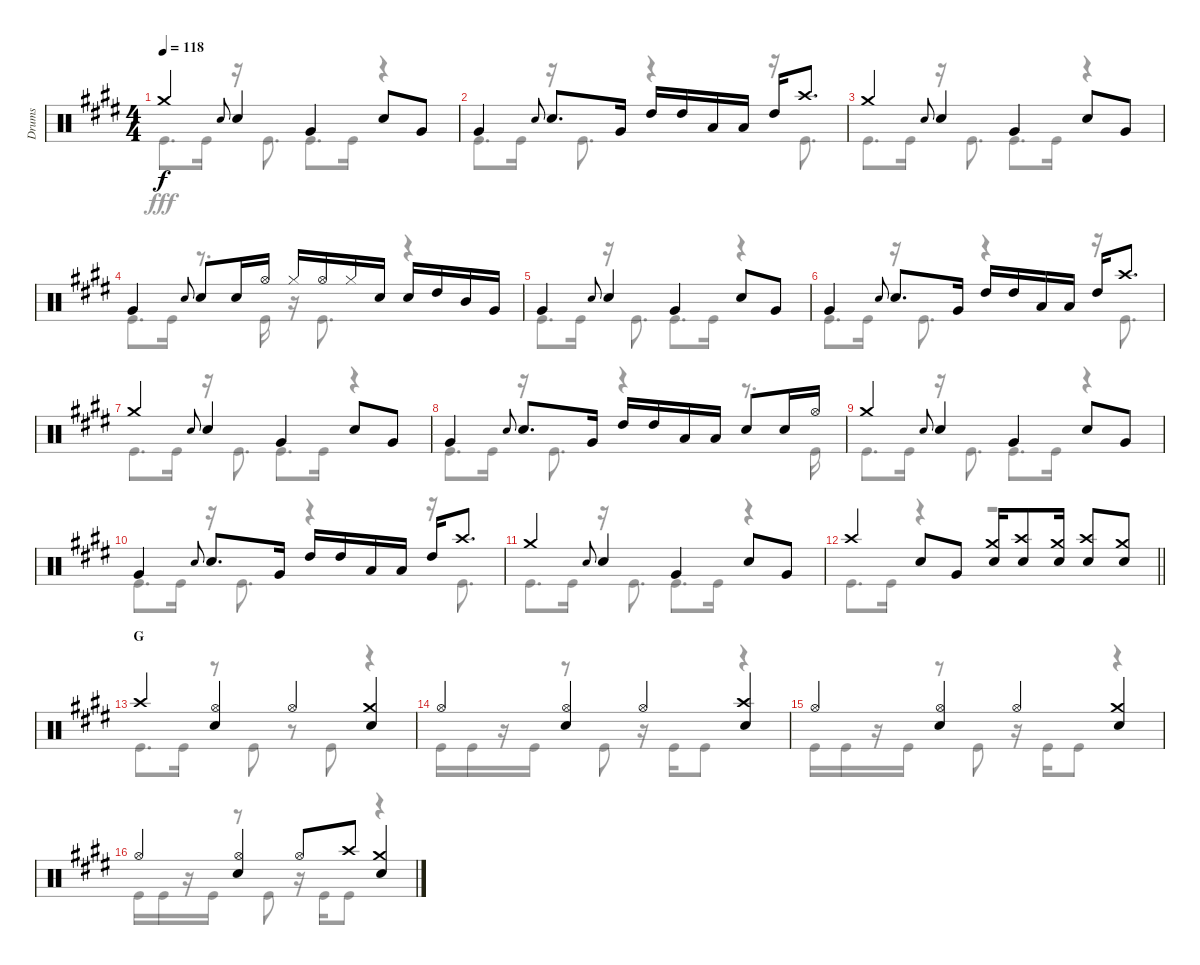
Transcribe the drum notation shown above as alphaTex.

\track ("Drums" "Drums") {instrument percussion}
\staff {score}
\articulation defaults
\voice
\ts (4 4)
\tempo 118
\clef neutral
\ks e "Crash medium (hit)".4{dy f} "Snare (hit) 2".8{gr onbeat} "Snare (hit) 2".4 "Very Low Tom (hit)".4 "Snare (hit) 2".8 "Very Low Tom (hit)".8
|
"Very Low Tom (hit)".4 "Snare (hit) 2".8{gr onbeat} "Snare (hit) 2".8{d} "Very Low Tom (hit)".16 "High Tom (hit)".16 "High Tom (hit)".16 "Low Tom (hit)".16 "Low Tom (hit)".16 "High Tom (hit)".16 "Crash high (hit)".8{d} |
"Crash medium (hit)".4 "Snare (hit) 2".8{gr onbeat} "Snare (hit) 2".4 "Very Low Tom (hit)".4 "Snare (hit) 2".8 "Very Low Tom (hit)".8 |
"Very Low Tom (hit)".4 "Snare (hit) 2".8{gr onbeat} "Snare (hit) 2".8 "Snare (hit) 2".16 "Hi-Hat (open)".16 "Hi-Hat (closed)".16 "Hi-Hat (open)".16 "Hi-Hat (closed)".16 "Snare (hit) 2".16 "Snare (hit) 2".16 "High Tom (hit)".16 "Mid Tom (hit)".16 "Very Low Tom (hit)".16 |
"Very Low Tom (hit)".4 "Snare (hit) 2".8{gr onbeat} "Snare (hit) 2".4 "Very Low Tom (hit)".4 "Snare (hit) 2".8 "Very Low Tom (hit)".8 |
"Very Low Tom (hit)".4 "Snare (hit) 2".8{gr onbeat} "Snare (hit) 2".8{d} "Very Low Tom (hit)".16 "High Tom (hit)".16 "High Tom (hit)".16 "Low Tom (hit)".16 "Low Tom (hit)".16 "High Tom (hit)".16 "Crash high (hit)".8{d} |
"Crash medium (hit)".4 "Snare (hit) 2".8{gr onbeat} "Snare (hit) 2".4 "Very Low Tom (hit)".4 "Snare (hit) 2".8 "Very Low Tom (hit)".8 |
"Very Low Tom (hit)".4 "Snare (hit) 2".8{gr onbeat} "Snare (hit) 2".8{d} "Very Low Tom (hit)".16 "High Tom (hit)".16 "High Tom (hit)".16 "Low Tom (hit)".16 "Low Tom (hit)".16 "Snare (hit) 2".8 "Snare (hit) 2".16 "Hi-Hat (open)".16 |
"Crash medium (hit)".4 "Snare (hit) 2".8{gr onbeat} "Snare (hit) 2".4 "Very Low Tom (hit)".4 "Snare (hit) 2".8 "Very Low Tom (hit)".8 |
"Very Low Tom (hit)".4 "Snare (hit) 2".8{gr onbeat} "Snare (hit) 2".8{d} "Very Low Tom (hit)".16 "High Tom (hit)".16 "High Tom (hit)".16 "Low Tom (hit)".16 "Low Tom (hit)".16 "High Tom (hit)".16 "Crash high (hit)".8{d} |
"Crash medium (hit)".4 "Snare (hit) 2".8{gr onbeat} "Snare (hit) 2".4 "Very Low Tom (hit)".4 "Snare (hit) 2".8 "Very Low Tom (hit)".8 |
\barLineRight lightlight "Crash high (hit)".4 "Snare (hit) 2".8 "Very Low Tom (hit)".8
("Crash medium (hit)" "Snare (hit) 2").16 ("Crash high (hit)" "Snare (hit) 2").8 ("Crash medium (hit)" "Snare (hit) 2").16 ("Crash high (hit)" "Snare (hit) 2").8 ("Crash medium (hit)" "Snare (hit) 2").8 |
\section ("" "G")
"Crash high (hit)".4 ("Hi-Hat (open)" "Snare (hit) 2").4 "Hi-Hat (open)".4 ("Crash medium (hit)" "Snare (hit) 2").4 |
"Hi-Hat (open)".4 ("Hi-Hat (open)" "Snare (hit) 2").4 "Hi-Hat (open)".4 ("Crash high (hit)" "Snare (hit) 2").4 |
"Hi-Hat (open)".4 ("Hi-Hat (open)" "Snare (hit) 2").4 "Hi-Hat (open)".4 ("Crash medium (hit)" "Snare (hit) 2").4 |
"Hi-Hat (open)".4 ("Hi-Hat (open)" "Snare (hit) 2").4 "Hi-Hat (open)".8 "Crash high (hit)".8 ("Crash medium (hit)" "Snare (hit) 2").4
\voice
\clef neutral
\ottava regular
\simile none
\ks e "Kick (hit)".8{d dy fff} "Kick (hit)".16
r.16 "Kick (hit)".8{d} "Kick (hit)".8{d} "Kick (hit)".16 r.4 |
"Kick (hit)".8{d} "Kick (hit)".16 r.16 "Kick (hit)".8{d} r.4 r.16 "Kick (hit)".8{d} |
"Kick (hit)".8{d} "Kick (hit)".16 r.16 "Kick (hit)".8{d} "Kick (hit)".8{d} "Kick (hit)".16 r.4 |
"Kick (hit)".8{d} "Kick (hit)".16 r.8{d} "Kick (hit)".16 r.16 "Kick (hit)".8{d} r.4 |
"Kick (hit)".8{d} "Kick (hit)".16 r.16 "Kick (hit)".8{d} "Kick (hit)".8{d} "Kick (hit)".16 r.4 |
"Kick (hit)".8{d} "Kick (hit)".16 r.16 "Kick (hit)".8{d} r.4 r.16 "Kick (hit)".8{d} |
"Kick (hit)".8{d} "Kick (hit)".16 r.16 "Kick (hit)".8{d} "Kick (hit)".8{d} "Kick (hit)".16 r.4 |
"Kick (hit)".8{d} "Kick (hit)".16 r.16 "Kick (hit)".8{d} r.4 r.8{d} "Kick (hit)".16 |
"Kick (hit)".8{d} "Kick (hit)".16 r.16 "Kick (hit)".8{d} "Kick (hit)".8{d} "Kick (hit)".16 r.4 |
"Kick (hit)".8{d} "Kick (hit)".16 r.16 "Kick (hit)".8{d} r.4 r.16 "Kick (hit)".8{d} |
"Kick (hit)".8{d} "Kick (hit)".16 r.16 "Kick (hit)".8{d} "Kick (hit)".8{d} "Kick (hit)".16 r.4 |
\barLineRight lightlight "Kick (hit)".8{d} "Kick (hit)".16
r.4 r.2 |
"Kick (hit)".8{d} "Kick (hit)".16 r.8 "Kick (hit)".8 r.8 "Kick (hit)".8 r.4 |
"Kick (hit)".16 "Kick (hit)".16 r.16 "Kick (hit)".16 r.8 "Kick (hit)".8 r.16 "Kick (hit)".16 "Kick (hit)".8 r.4 |
"Kick (hit)".16 "Kick (hit)".16 r.16 "Kick (hit)".16 r.8 "Kick (hit)".8 r.16 "Kick (hit)".16 "Kick (hit)".8 r.4 |
"Kick (hit)".16 "Kick (hit)".16 r.16 "Kick (hit)".16 r.8 "Kick (hit)".8 r.16 "Kick (hit)".16 "Kick (hit)".8 r.4
